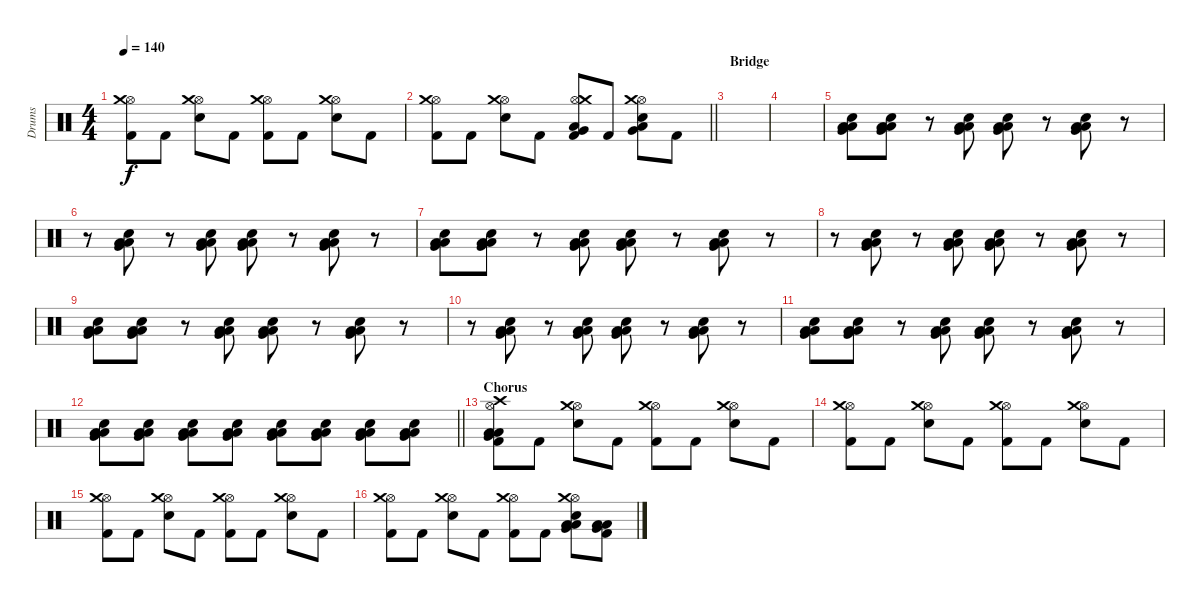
\track ("Drums" "Drums") {instrument percussion}
\staff {score}
\articulation defaults
\ts (4 4)
\tempo 140
\clef neutral
\ks c
("Kick (hit) 2" "Hi-Hat (open)" "Crash medium (hit)").8{dy f} "Kick (hit) 2".8 ("Electric Snare (hit)" "Hi-Hat (open)" "Crash medium (hit)").8 "Kick (hit) 2".8 ("Kick (hit) 2" "Hi-Hat (open)" "Crash medium (hit)").8 "Kick (hit) 2".8 ("Electric Snare (hit)" "Hi-Hat (open)" "Crash medium (hit)").8 "Kick (hit) 2".8 |
\barLineRight lightlight
("Kick (hit) 2" "Hi-Hat (open)" "Crash medium (hit)").8 "Kick (hit) 2".8 ("Electric Snare (hit)" "Hi-Hat (open)" "Crash medium (hit)").8 "Kick (hit) 2".8 ("Kick (hit) 2" "Hi-Hat (open)" "Crash medium (hit)" "Very Low Tom (hit)" "Low Tom (hit)").8 "Kick (hit) 2".8 ("Electric Snare (hit)" "Hi-Hat (open)" "Crash medium (hit)" "Very Low Tom (hit)" "Low Tom (hit)").8 "Kick (hit) 2".8 |
\section ("" "Bridge")
|
|
("Electric Snare (hit)" "Low Floor Tom (hit)" "Very Low Tom (hit)" "Low Tom (hit)").8 ("Electric Snare (hit)" "Low Floor Tom (hit)" "Very Low Tom (hit)" "Low Tom (hit)").8 r.8 ("Electric Snare (hit)" "Low Floor Tom (hit)" "Very Low Tom (hit)" "Low Tom (hit)").8 ("Electric Snare (hit)" "Low Floor Tom (hit)" "Very Low Tom (hit)" "Low Tom (hit)").8 r.8 ("Electric Snare (hit)" "Low Floor Tom (hit)" "Very Low Tom (hit)" "Low Tom (hit)").8 r.8 |
r.8 ("Electric Snare (hit)" "Low Floor Tom (hit)" "Very Low Tom (hit)" "Low Tom (hit)").8 r.8 ("Electric Snare (hit)" "Low Floor Tom (hit)" "Very Low Tom (hit)" "Low Tom (hit)").8 ("Electric Snare (hit)" "Low Floor Tom (hit)" "Very Low Tom (hit)" "Low Tom (hit)").8 r.8 ("Electric Snare (hit)" "Low Floor Tom (hit)" "Very Low Tom (hit)" "Low Tom (hit)").8 r.8 |
("Electric Snare (hit)" "Low Floor Tom (hit)" "Very Low Tom (hit)" "Low Tom (hit)").8 ("Electric Snare (hit)" "Low Floor Tom (hit)" "Very Low Tom (hit)" "Low Tom (hit)").8 r.8 ("Electric Snare (hit)" "Low Floor Tom (hit)" "Very Low Tom (hit)" "Low Tom (hit)").8 ("Electric Snare (hit)" "Low Floor Tom (hit)" "Very Low Tom (hit)" "Low Tom (hit)").8 r.8 ("Electric Snare (hit)" "Low Floor Tom (hit)" "Very Low Tom (hit)" "Low Tom (hit)").8 r.8 |
r.8 ("Electric Snare (hit)" "Low Floor Tom (hit)" "Very Low Tom (hit)" "Low Tom (hit)").8 r.8 ("Electric Snare (hit)" "Low Floor Tom (hit)" "Very Low Tom (hit)" "Low Tom (hit)").8 ("Electric Snare (hit)" "Low Floor Tom (hit)" "Very Low Tom (hit)" "Low Tom (hit)").8 r.8 ("Electric Snare (hit)" "Low Floor Tom (hit)" "Very Low Tom (hit)" "Low Tom (hit)").8 r.8 |
("Electric Snare (hit)" "Low Floor Tom (hit)" "Very Low Tom (hit)" "Low Tom (hit)").8 ("Electric Snare (hit)" "Low Floor Tom (hit)" "Very Low Tom (hit)" "Low Tom (hit)").8 r.8 ("Electric Snare (hit)" "Low Floor Tom (hit)" "Very Low Tom (hit)" "Low Tom (hit)").8 ("Electric Snare (hit)" "Low Floor Tom (hit)" "Very Low Tom (hit)" "Low Tom (hit)").8 r.8 ("Electric Snare (hit)" "Low Floor Tom (hit)" "Very Low Tom (hit)" "Low Tom (hit)").8 r.8 |
r.8 ("Electric Snare (hit)" "Low Floor Tom (hit)" "Very Low Tom (hit)" "Low Tom (hit)").8 r.8 ("Electric Snare (hit)" "Low Floor Tom (hit)" "Very Low Tom (hit)" "Low Tom (hit)").8 ("Electric Snare (hit)" "Low Floor Tom (hit)" "Very Low Tom (hit)" "Low Tom (hit)").8 r.8 ("Electric Snare (hit)" "Low Floor Tom (hit)" "Very Low Tom (hit)" "Low Tom (hit)").8 r.8 |
("Electric Snare (hit)" "Low Floor Tom (hit)" "Very Low Tom (hit)" "Low Tom (hit)").8 ("Electric Snare (hit)" "Low Floor Tom (hit)" "Very Low Tom (hit)" "Low Tom (hit)").8 r.8 ("Electric Snare (hit)" "Low Floor Tom (hit)" "Very Low Tom (hit)" "Low Tom (hit)").8 ("Electric Snare (hit)" "Low Floor Tom (hit)" "Very Low Tom (hit)" "Low Tom (hit)").8 r.8 ("Electric Snare (hit)" "Low Floor Tom (hit)" "Very Low Tom (hit)" "Low Tom (hit)").8 r.8 |
\barLineRight lightlight
("Electric Snare (hit)" "Low Floor Tom (hit)" "Very Low Tom (hit)" "Low Tom (hit)").8 ("Electric Snare (hit)" "Low Floor Tom (hit)" "Very Low Tom (hit)" "Low Tom (hit)").8 ("Electric Snare (hit)" "Low Floor Tom (hit)" "Very Low Tom (hit)" "Low Tom (hit)").8 ("Electric Snare (hit)" "Low Floor Tom (hit)" "Very Low Tom (hit)" "Low Tom (hit)").8 ("Electric Snare (hit)" "Low Floor Tom (hit)" "Very Low Tom (hit)" "Low Tom (hit)").8 ("Electric Snare (hit)" "Low Floor Tom (hit)" "Very Low Tom (hit)" "Low Tom (hit)").8 ("Electric Snare (hit)" "Low Floor Tom (hit)" "Very Low Tom (hit)" "Low Tom (hit)").8 ("Electric Snare (hit)" "Low Floor Tom (hit)" "Very Low Tom (hit)" "Low Tom (hit)").8 |
\section ("" "Chorus")
("Kick (hit) 2" "Hi-Hat (open)" "Low Floor Tom (hit)" "Very Low Tom (hit)" "Low Tom (hit)" "Crash high (hit)").8 "Kick (hit) 2".8 ("Electric Snare (hit)" "Hi-Hat (open)" "Crash medium (hit)").8 "Kick (hit) 2".8 ("Kick (hit) 2" "Hi-Hat (open)" "Crash medium (hit)").8 "Kick (hit) 2".8 ("Electric Snare (hit)" "Hi-Hat (open)" "Crash medium (hit)").8 "Kick (hit) 2".8 |
("Kick (hit) 2" "Hi-Hat (open)" "Crash medium (hit)").8 "Kick (hit) 2".8 ("Electric Snare (hit)" "Hi-Hat (open)" "Crash medium (hit)").8 "Kick (hit) 2".8 ("Kick (hit) 2" "Hi-Hat (open)" "Crash medium (hit)").8 "Kick (hit) 2".8 ("Electric Snare (hit)" "Hi-Hat (open)" "Crash medium (hit)").8 "Kick (hit) 2".8 |
("Kick (hit) 2" "Hi-Hat (open)" "Crash medium (hit)").8 "Kick (hit) 2".8 ("Electric Snare (hit)" "Hi-Hat (open)" "Crash medium (hit)").8 "Kick (hit) 2".8 ("Kick (hit) 2" "Hi-Hat (open)" "Crash medium (hit)").8 "Kick (hit) 2".8 ("Electric Snare (hit)" "Hi-Hat (open)" "Crash medium (hit)").8 "Kick (hit) 2".8 |
("Kick (hit) 2" "Hi-Hat (open)" "Crash medium (hit)").8 "Kick (hit) 2".8 ("Electric Snare (hit)" "Hi-Hat (open)" "Crash medium (hit)").8 "Kick (hit) 2".8 ("Kick (hit) 2" "Hi-Hat (open)" "Crash medium (hit)").8 "Kick (hit) 2".8 ("Electric Snare (hit)" "Hi-Hat (open)" "Crash medium (hit)" "Low Floor Tom (hit)" "Very Low Tom (hit)" "Low Tom (hit)").8 ("Kick (hit) 2" "Low Floor Tom (hit)" "Very Low Tom (hit)" "Low Tom (hit)").8
